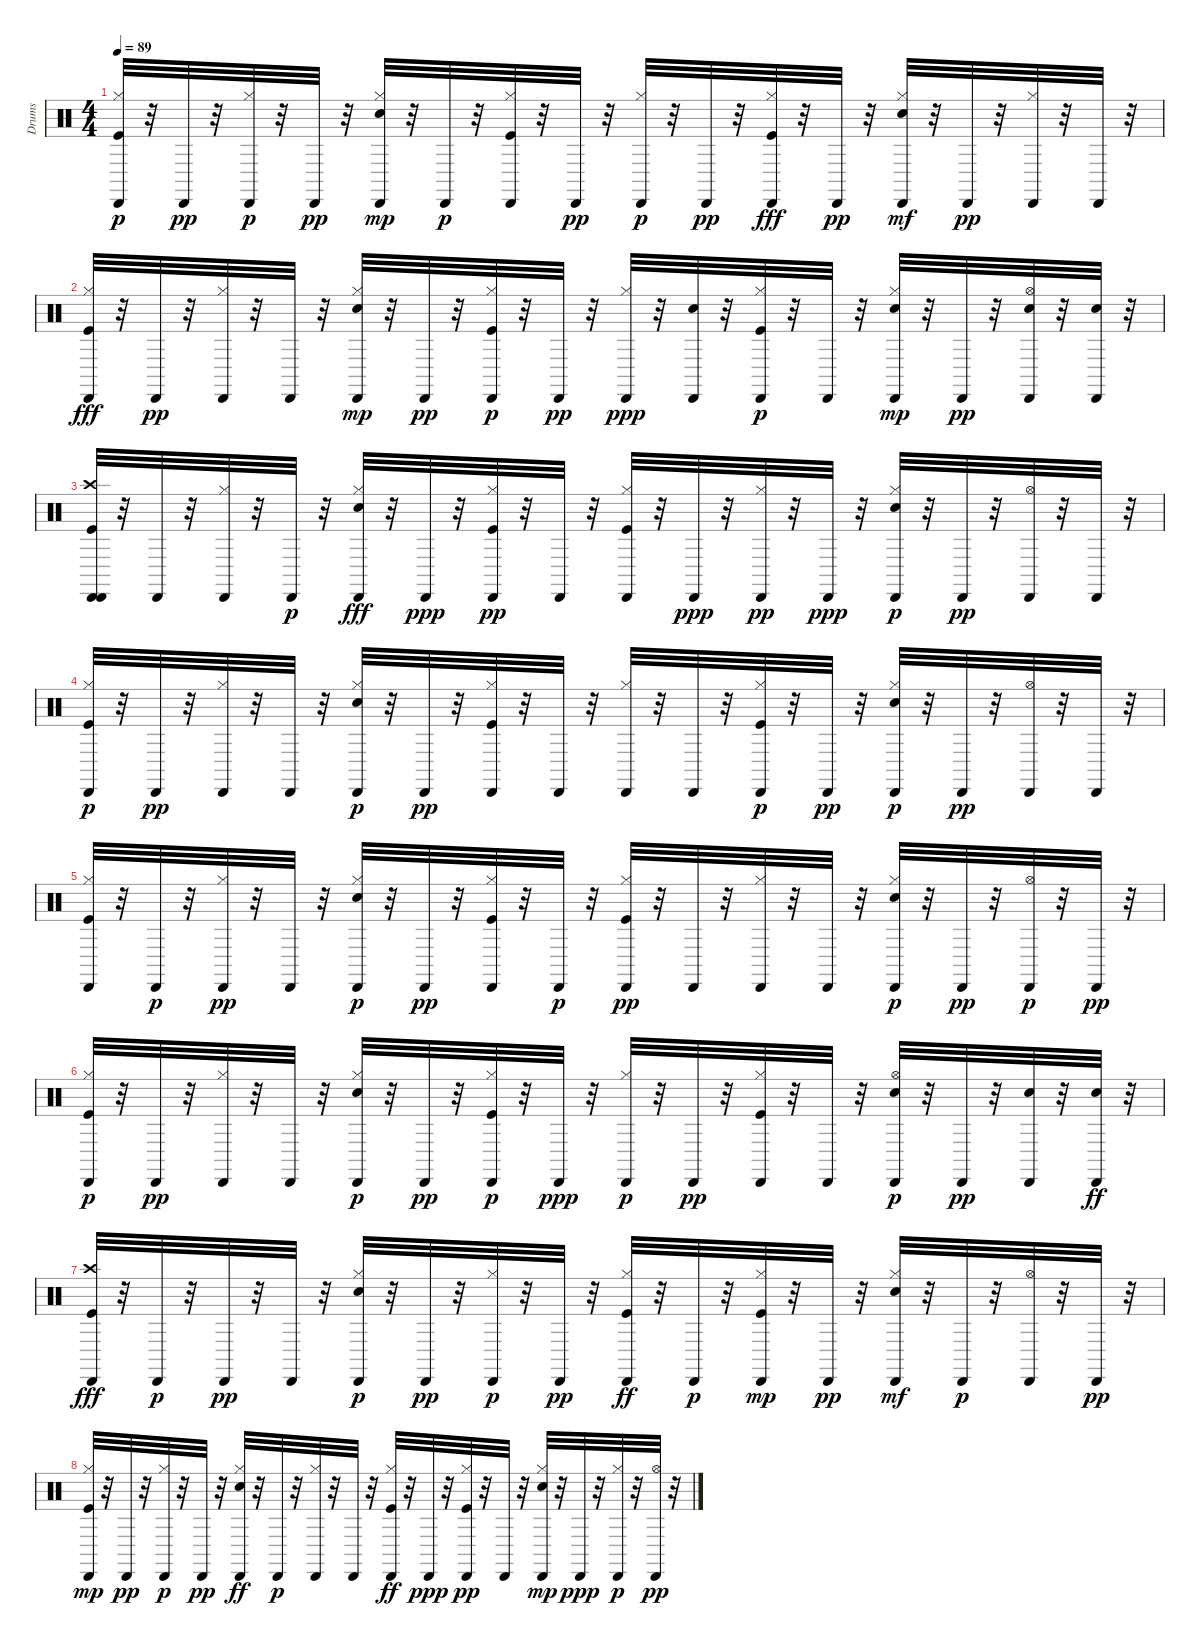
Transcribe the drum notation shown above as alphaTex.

\track ("Drums" "Drums") {instrument percussion}
\staff {score}
\articulation defaults
\ts (4 4)
\tempo 89
\clef neutral
\ks c
("Hi-Hat (closed)" "Kick (hit)" "Cabasa (hit)").32{dy p} r.32 "Cabasa (hit)".32{dy pp} r.32 ("Hi-Hat (closed)" "Cabasa (hit)").32{dy p} r.32 "Cabasa (hit)".32{dy pp} r.32 ("Electric Snare (hit)" "Hi-Hat (closed)" "Cabasa (hit)").32{dy mp} r.32 "Cabasa (hit)".32{dy p} r.32 ("Hi-Hat (closed)" "Kick (hit)" "Cabasa (hit)").32 r.32 "Cabasa (hit)".32{dy pp} r.32 ("Cabasa (hit)" "Hi-Hat (closed)").32{dy p} r.32 "Cabasa (hit)".32{dy pp} r.32 ("Cabasa (hit)" "Hi-Hat (closed)" "Kick (hit)").32{dy fff} r.32 "Cabasa (hit)".32{dy pp} r.32 ("Cabasa (hit)" "Electric Snare (hit)" "Hi-Hat (closed)").32{dy mf} r.32 "Cabasa (hit)".32{dy pp} r.32 ("Hi-Hat (closed)" "Cabasa (hit)").32 r.32 "Cabasa (hit)".32 r.32 |
("Hi-Hat (closed)" "Cabasa (hit)" "Kick (hit)").32{dy fff} r.32 "Cabasa (hit)".32{dy pp} r.32 ("Hi-Hat (closed)" "Cabasa (hit)").32 r.32 "Cabasa (hit)".32 r.32 ("Hi-Hat (closed)" "Electric Snare (hit)" "Cabasa (hit)").32{dy mp} r.32 "Cabasa (hit)".32{dy pp} r.32 ("Hi-Hat (closed)" "Kick (hit)" "Cabasa (hit)").32{dy p} r.32 "Cabasa (hit)".32{dy pp} r.32 ("Hi-Hat (closed)" "Cabasa (hit)").32{dy ppp} r.32 ("Electric Snare (hit)" "Cabasa (hit)").32 r.32 ("Hi-Hat (closed)" "Kick (hit)" "Cabasa (hit)").32{dy p} r.32 "Cabasa (hit)".32 r.32 ("Electric Snare (hit)" "Hi-Hat (closed)" "Cabasa (hit)").32{dy mp} r.32 "Cabasa (hit)".32{dy pp} r.32 ("Electric Snare (hit)" "Hi-Hat (open)" "Cabasa (hit)").32 r.32 ("Electric Snare (hit)" "Cabasa (hit)").32 r.32 |
("Crash high (hit)" "Kick (hit)" "Cabasa (hit)" "Cabasa (hit)").32 r.32 "Cabasa (hit)".32 r.32 ("Hi-Hat (closed)" "Cabasa (hit)").32 r.32 "Cabasa (hit)".32{dy p} r.32 ("Hi-Hat (closed)" "Cabasa (hit)" "Electric Snare (hit)").32{dy fff} r.32 "Cabasa (hit)".32{dy ppp} r.32 ("Hi-Hat (closed)" "Kick (hit)" "Cabasa (hit)").32{dy pp} r.32 "Cabasa (hit)".32 r.32 ("Kick (hit)" "Hi-Hat (closed)" "Cabasa (hit)").32 r.32 "Cabasa (hit)".32{dy ppp} r.32 ("Hi-Hat (closed)" "Cabasa (hit)").32{dy pp} r.32 "Cabasa (hit)".32{dy ppp} r.32 ("Hi-Hat (closed)" "Electric Snare (hit)" "Cabasa (hit)").32{dy p} r.32 "Cabasa (hit)".32{dy pp} r.32 ("Hi-Hat (open)" "Cabasa (hit)").32 r.32 "Cabasa (hit)".32 r.32 |
("Kick (hit)" "Hi-Hat (closed)" "Cabasa (hit)").32{dy p} r.32 "Cabasa (hit)".32{dy pp} r.32 ("Hi-Hat (closed)" "Cabasa (hit)").32 r.32 "Cabasa (hit)".32 r.32 ("Hi-Hat (closed)" "Electric Snare (hit)" "Cabasa (hit)").32{dy p} r.32 "Cabasa (hit)".32{dy pp} r.32 ("Kick (hit)" "Hi-Hat (closed)" "Cabasa (hit)").32 r.32 "Cabasa (hit)".32 r.32 ("Hi-Hat (closed)" "Cabasa (hit)").32 r.32 "Cabasa (hit)".32 r.32 ("Hi-Hat (closed)" "Kick (hit)" "Cabasa (hit)").32{dy p} r.32 "Cabasa (hit)".32{dy pp} r.32 ("Hi-Hat (closed)" "Electric Snare (hit)" "Cabasa (hit)").32{dy p} r.32 "Cabasa (hit)".32{dy pp} r.32 ("Hi-Hat (open)" "Cabasa (hit)").32 r.32 "Cabasa (hit)".32 r.32 |
("Kick (hit)" "Hi-Hat (closed)" "Cabasa (hit)").32 r.32 "Cabasa (hit)".32{dy p} r.32 ("Hi-Hat (closed)" "Cabasa (hit)").32{dy pp} r.32 "Cabasa (hit)".32 r.32 ("Electric Snare (hit)" "Hi-Hat (closed)" "Cabasa (hit)").32{dy p} r.32 "Cabasa (hit)".32{dy pp} r.32 ("Hi-Hat (closed)" "Kick (hit)" "Cabasa (hit)").32 r.32 "Cabasa (hit)".32{dy p} r.32 ("Kick (hit)" "Hi-Hat (closed)" "Cabasa (hit)").32{dy pp} r.32 "Cabasa (hit)".32 r.32 ("Hi-Hat (closed)" "Cabasa (hit)").32 r.32 "Cabasa (hit)".32 r.32 ("Hi-Hat (closed)" "Electric Snare (hit)" "Cabasa (hit)").32{dy p} r.32 "Cabasa (hit)".32{dy pp} r.32 ("Hi-Hat (open)" "Cabasa (hit)").32{dy p} r.32 "Cabasa (hit)".32{dy pp} r.32 |
("Hi-Hat (closed)" "Kick (hit)" "Cabasa (hit)").32{dy p} r.32 "Cabasa (hit)".32{dy pp} r.32 ("Hi-Hat (closed)" "Cabasa (hit)").32 r.32 "Cabasa (hit)".32 r.32 ("Hi-Hat (closed)" "Electric Snare (hit)" "Cabasa (hit)").32{dy p} r.32 "Cabasa (hit)".32{dy pp} r.32 ("Kick (hit)" "Hi-Hat (closed)" "Cabasa (hit)").32{dy p} r.32 "Cabasa (hit)".32{dy ppp} r.32 ("Hi-Hat (closed)" "Cabasa (hit)").32{dy p} r.32 "Cabasa (hit)".32{dy pp} r.32 ("Kick (hit)" "Hi-Hat (closed)" "Cabasa (hit)").32 r.32 "Cabasa (hit)".32 r.32 ("Electric Snare (hit)" "Hi-Hat (open)" "Cabasa (hit)").32{dy p} r.32 "Cabasa (hit)".32{dy pp} r.32 ("Cabasa (hit)" "Electric Snare (hit)").32 r.32 ("Cabasa (hit)" "Electric Snare (hit)").32{dy ff} r.32 |
("Crash high (hit)" "Cabasa (hit)" "Kick (hit)").32{dy fff} r.32 "Cabasa (hit)".32{dy p} r.32 "Cabasa (hit)".32{dy pp} r.32 "Cabasa (hit)".32 r.32 ("Electric Snare (hit)" "Cabasa (hit)" "Hi-Hat (closed)").32{dy p} r.32 "Cabasa (hit)".32{dy pp} r.32 ("Hi-Hat (closed)" "Cabasa (hit)").32{dy p} r.32 "Cabasa (hit)".32{dy pp} r.32 ("Hi-Hat (closed)" "Cabasa (hit)" "Kick (hit)").32{dy ff} r.32 "Cabasa (hit)".32{dy p} r.32 ("Hi-Hat (closed)" "Kick (hit)" "Cabasa (hit)").32{dy mp} r.32 "Cabasa (hit)".32{dy pp} r.32 ("Electric Snare (hit)" "Cabasa (hit)" "Hi-Hat (closed)").32{dy mf} r.32 "Cabasa (hit)".32{dy p} r.32 ("Hi-Hat (open)" "Cabasa (hit)").32 r.32 "Cabasa (hit)".32{dy pp} r.32 |
("Cabasa (hit)" "Kick (hit)" "Hi-Hat (closed)").32{dy mp} r.32 "Cabasa (hit)".32{dy pp} r.32 ("Hi-Hat (closed)" "Cabasa (hit)").32{dy p} r.32 "Cabasa (hit)".32{dy pp} r.32 ("Hi-Hat (closed)" "Cabasa (hit)" "Electric Snare (hit)").32{dy ff} r.32 "Cabasa (hit)".32{dy p} r.32 ("Hi-Hat (closed)" "Cabasa (hit)").32 r.32 "Cabasa (hit)".32 r.32 ("Hi-Hat (closed)" "Cabasa (hit)" "Kick (hit)").32{dy ff} r.32 "Cabasa (hit)".32{dy ppp} r.32 ("Kick (hit)" "Hi-Hat (closed)" "Cabasa (hit)").32{dy pp} r.32 "Cabasa (hit)".32 r.32 ("Electric Snare (hit)" "Hi-Hat (closed)" "Cabasa (hit)").32{dy mp} r.32 "Cabasa (hit)".32{dy ppp} r.32 ("Hi-Hat (closed)" "Cabasa (hit)").32{dy p} r.32 ("Hi-Hat (open)" "Cabasa (hit)").32{dy pp} r.32
